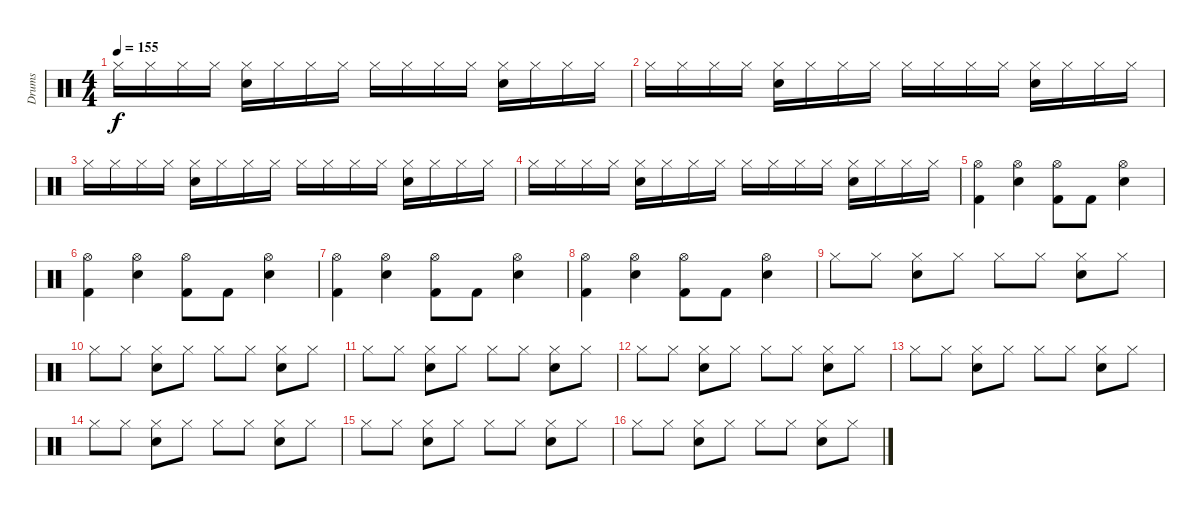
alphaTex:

\track ("Drums" "Drums") {instrument percussion}
\staff {score}
\articulation defaults
\ts (4 4)
\tempo 155
\clef neutral
\ks c "Hi-Hat (closed)".16{dy f} "Hi-Hat (closed)".16 "Hi-Hat (closed)".16 "Hi-Hat (closed)".16
("Hi-Hat (closed)" "Electric Snare (hit)").16 "Hi-Hat (closed)".16 "Hi-Hat (closed)".16 "Hi-Hat (closed)".16 "Hi-Hat (closed)".16 "Hi-Hat (closed)".16 "Hi-Hat (closed)".16 "Hi-Hat (closed)".16 ("Hi-Hat (closed)" "Electric Snare (hit)").16 "Hi-Hat (closed)".16 "Hi-Hat (closed)".16 "Hi-Hat (closed)".16 |
"Hi-Hat (closed)".16 "Hi-Hat (closed)".16 "Hi-Hat (closed)".16 "Hi-Hat (closed)".16 ("Hi-Hat (closed)" "Electric Snare (hit)").16 "Hi-Hat (closed)".16 "Hi-Hat (closed)".16 "Hi-Hat (closed)".16 "Hi-Hat (closed)".16 "Hi-Hat (closed)".16 "Hi-Hat (closed)".16 "Hi-Hat (closed)".16 ("Hi-Hat (closed)" "Electric Snare (hit)").16 "Hi-Hat (closed)".16 "Hi-Hat (closed)".16 "Hi-Hat (closed)".16 |
"Hi-Hat (closed)".16 "Hi-Hat (closed)".16 "Hi-Hat (closed)".16 "Hi-Hat (closed)".16 ("Hi-Hat (closed)" "Electric Snare (hit)").16 "Hi-Hat (closed)".16 "Hi-Hat (closed)".16 "Hi-Hat (closed)".16 "Hi-Hat (closed)".16 "Hi-Hat (closed)".16 "Hi-Hat (closed)".16 "Hi-Hat (closed)".16 ("Hi-Hat (closed)" "Electric Snare (hit)").16 "Hi-Hat (closed)".16 "Hi-Hat (closed)".16 "Hi-Hat (closed)".16 |
"Hi-Hat (closed)".16 "Hi-Hat (closed)".16 "Hi-Hat (closed)".16 "Hi-Hat (closed)".16 ("Hi-Hat (closed)" "Electric Snare (hit)").16 "Hi-Hat (closed)".16 "Hi-Hat (closed)".16 "Hi-Hat (closed)".16 "Hi-Hat (closed)".16 "Hi-Hat (closed)".16 "Hi-Hat (closed)".16 "Hi-Hat (closed)".16 ("Hi-Hat (closed)" "Electric Snare (hit)").16 "Hi-Hat (closed)".16 "Hi-Hat (closed)".16 "Hi-Hat (closed)".16 |
("Hi-Hat (open)" "Kick (hit) 2").4 ("Hi-Hat (open)" "Electric Snare (hit)").4 ("Hi-Hat (open)" "Kick (hit) 2").8 "Kick (hit) 2".8 ("Hi-Hat (open)" "Electric Snare (hit)").4 |
("Hi-Hat (open)" "Kick (hit) 2").4 ("Hi-Hat (open)" "Electric Snare (hit)").4 ("Hi-Hat (open)" "Kick (hit) 2").8 "Kick (hit) 2".8 ("Hi-Hat (open)" "Electric Snare (hit)").4 |
("Hi-Hat (open)" "Kick (hit) 2").4 ("Hi-Hat (open)" "Electric Snare (hit)").4 ("Hi-Hat (open)" "Kick (hit) 2").8 "Kick (hit) 2".8 ("Hi-Hat (open)" "Electric Snare (hit)").4 |
("Hi-Hat (open)" "Kick (hit) 2").4 ("Hi-Hat (open)" "Electric Snare (hit)").4 ("Hi-Hat (open)" "Kick (hit) 2").8 "Kick (hit) 2".8 ("Hi-Hat (open)" "Electric Snare (hit)").4 |
"Hi-Hat (closed)".8 "Hi-Hat (closed)".8 ("Hi-Hat (closed)" "Electric Snare (hit)").8 "Hi-Hat (closed)".8 "Hi-Hat (closed)".8 "Hi-Hat (closed)".8 ("Hi-Hat (closed)" "Electric Snare (hit)").8 "Hi-Hat (closed)".8 |
"Hi-Hat (closed)".8 "Hi-Hat (closed)".8 ("Hi-Hat (closed)" "Electric Snare (hit)").8 "Hi-Hat (closed)".8 "Hi-Hat (closed)".8 "Hi-Hat (closed)".8 ("Hi-Hat (closed)" "Electric Snare (hit)").8 "Hi-Hat (closed)".8 |
"Hi-Hat (closed)".8 "Hi-Hat (closed)".8 ("Hi-Hat (closed)" "Electric Snare (hit)").8 "Hi-Hat (closed)".8 "Hi-Hat (closed)".8 "Hi-Hat (closed)".8 ("Hi-Hat (closed)" "Electric Snare (hit)").8 "Hi-Hat (closed)".8 |
"Hi-Hat (closed)".8 "Hi-Hat (closed)".8 ("Hi-Hat (closed)" "Electric Snare (hit)").8 "Hi-Hat (closed)".8 "Hi-Hat (closed)".8 "Hi-Hat (closed)".8 ("Hi-Hat (closed)" "Electric Snare (hit)").8 "Hi-Hat (closed)".8 |
"Hi-Hat (closed)".8 "Hi-Hat (closed)".8 ("Hi-Hat (closed)" "Electric Snare (hit)").8 "Hi-Hat (closed)".8 "Hi-Hat (closed)".8 "Hi-Hat (closed)".8 ("Hi-Hat (closed)" "Electric Snare (hit)").8 "Hi-Hat (closed)".8 |
"Hi-Hat (closed)".8 "Hi-Hat (closed)".8 ("Hi-Hat (closed)" "Electric Snare (hit)").8 "Hi-Hat (closed)".8 "Hi-Hat (closed)".8 "Hi-Hat (closed)".8 ("Hi-Hat (closed)" "Electric Snare (hit)").8 "Hi-Hat (closed)".8 |
"Hi-Hat (closed)".8 "Hi-Hat (closed)".8 ("Hi-Hat (closed)" "Electric Snare (hit)").8 "Hi-Hat (closed)".8 "Hi-Hat (closed)".8 "Hi-Hat (closed)".8 ("Hi-Hat (closed)" "Electric Snare (hit)").8 "Hi-Hat (closed)".8 |
"Hi-Hat (closed)".8 "Hi-Hat (closed)".8 ("Hi-Hat (closed)" "Electric Snare (hit)").8 "Hi-Hat (closed)".8 "Hi-Hat (closed)".8 "Hi-Hat (closed)".8 ("Hi-Hat (closed)" "Electric Snare (hit)").8 "Hi-Hat (closed)".8
